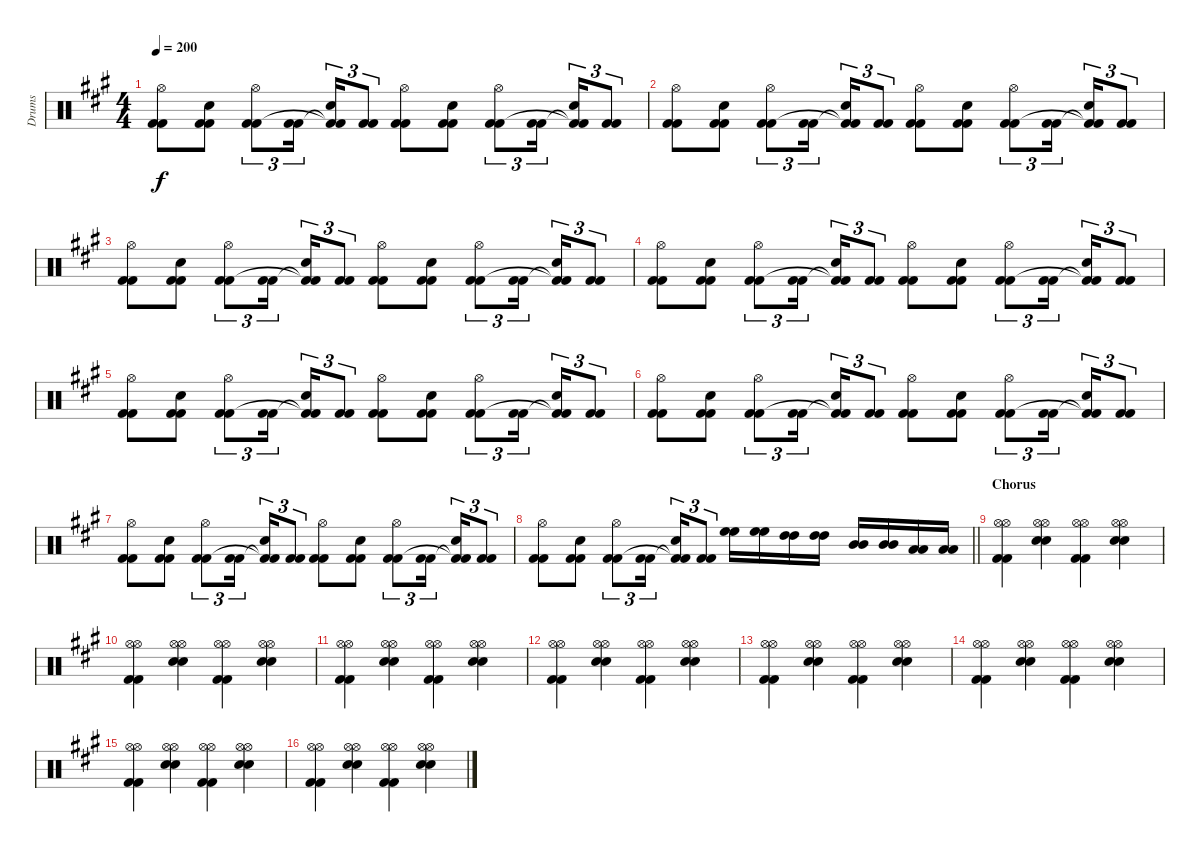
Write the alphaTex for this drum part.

\track ("Drums" "Drums") {instrument percussion}
\staff {score}
\articulation defaults
\ts (4 4)
\tempo 200
\clef neutral
\ks f#minor
("Hi-Hat (open)" "Kick (hit) 2" "Kick (hit) 2").8{dy f} ("Snare (hit) 2" "Kick (hit) 2" "Kick (hit) 2").8 ("Hi-Hat (open)" "Kick (hit) 2" "Kick (hit) 2").8{tu (3 2)} ("Kick (hit) 2" "Kick (hit) 2").16{tu (3 2) beam splitsecondary} ("Snare (hit) 2" "Kick (hit) 2"{t} "Kick (hit) 2"{t}).16{tu (3 2)} ("Kick (hit) 2" "Kick (hit) 2").8{tu (3 2)} ("Hi-Hat (open)" "Kick (hit) 2" "Kick (hit) 2").8 ("Snare (hit) 2" "Kick (hit) 2" "Kick (hit) 2").8 ("Hi-Hat (open)" "Kick (hit) 2" "Kick (hit) 2").8{tu (3 2)} ("Kick (hit) 2" "Kick (hit) 2").16{tu (3 2) beam splitsecondary} ("Snare (hit) 2" "Kick (hit) 2"{t} "Kick (hit) 2"{t}).16{tu (3 2)} ("Kick (hit) 2" "Kick (hit) 2").8{tu (3 2)} |
("Hi-Hat (open)" "Kick (hit) 2" "Kick (hit) 2").8 ("Snare (hit) 2" "Kick (hit) 2" "Kick (hit) 2").8 ("Hi-Hat (open)" "Kick (hit) 2" "Kick (hit) 2").8{tu (3 2)} ("Kick (hit) 2" "Kick (hit) 2").16{tu (3 2) beam splitsecondary} ("Snare (hit) 2" "Kick (hit) 2"{t} "Kick (hit) 2"{t}).16{tu (3 2)} ("Kick (hit) 2" "Kick (hit) 2").8{tu (3 2)} ("Hi-Hat (open)" "Kick (hit) 2" "Kick (hit) 2").8 ("Snare (hit) 2" "Kick (hit) 2" "Kick (hit) 2").8 ("Hi-Hat (open)" "Kick (hit) 2" "Kick (hit) 2").8{tu (3 2)} ("Kick (hit) 2" "Kick (hit) 2").16{tu (3 2) beam splitsecondary} ("Snare (hit) 2" "Kick (hit) 2"{t} "Kick (hit) 2"{t}).16{tu (3 2)} ("Kick (hit) 2" "Kick (hit) 2").8{tu (3 2)} |
("Hi-Hat (open)" "Kick (hit) 2" "Kick (hit) 2").8 ("Snare (hit) 2" "Kick (hit) 2" "Kick (hit) 2").8 ("Hi-Hat (open)" "Kick (hit) 2" "Kick (hit) 2").8{tu (3 2)} ("Kick (hit) 2" "Kick (hit) 2").16{tu (3 2) beam splitsecondary} ("Snare (hit) 2" "Kick (hit) 2"{t} "Kick (hit) 2"{t}).16{tu (3 2)} ("Kick (hit) 2" "Kick (hit) 2").8{tu (3 2)} ("Hi-Hat (open)" "Kick (hit) 2" "Kick (hit) 2").8 ("Snare (hit) 2" "Kick (hit) 2" "Kick (hit) 2").8 ("Hi-Hat (open)" "Kick (hit) 2" "Kick (hit) 2").8{tu (3 2)} ("Kick (hit) 2" "Kick (hit) 2").16{tu (3 2) beam splitsecondary} ("Snare (hit) 2" "Kick (hit) 2"{t} "Kick (hit) 2"{t}).16{tu (3 2)} ("Kick (hit) 2" "Kick (hit) 2").8{tu (3 2)} |
("Hi-Hat (open)" "Kick (hit) 2" "Kick (hit) 2").8 ("Snare (hit) 2" "Kick (hit) 2" "Kick (hit) 2").8 ("Hi-Hat (open)" "Kick (hit) 2" "Kick (hit) 2").8{tu (3 2)} ("Kick (hit) 2" "Kick (hit) 2").16{tu (3 2) beam splitsecondary} ("Snare (hit) 2" "Kick (hit) 2"{t} "Kick (hit) 2"{t}).16{tu (3 2)} ("Kick (hit) 2" "Kick (hit) 2").8{tu (3 2)} ("Hi-Hat (open)" "Kick (hit) 2" "Kick (hit) 2").8 ("Snare (hit) 2" "Kick (hit) 2" "Kick (hit) 2").8 ("Hi-Hat (open)" "Kick (hit) 2" "Kick (hit) 2").8{tu (3 2)} ("Kick (hit) 2" "Kick (hit) 2").16{tu (3 2) beam splitsecondary} ("Snare (hit) 2" "Kick (hit) 2"{t} "Kick (hit) 2"{t}).16{tu (3 2)} ("Kick (hit) 2" "Kick (hit) 2").8{tu (3 2)} |
("Hi-Hat (open)" "Kick (hit) 2" "Kick (hit) 2").8 ("Snare (hit) 2" "Kick (hit) 2" "Kick (hit) 2").8 ("Hi-Hat (open)" "Kick (hit) 2" "Kick (hit) 2").8{tu (3 2)} ("Kick (hit) 2" "Kick (hit) 2").16{tu (3 2) beam splitsecondary} ("Snare (hit) 2" "Kick (hit) 2"{t} "Kick (hit) 2"{t}).16{tu (3 2)} ("Kick (hit) 2" "Kick (hit) 2").8{tu (3 2)} ("Hi-Hat (open)" "Kick (hit) 2" "Kick (hit) 2").8 ("Snare (hit) 2" "Kick (hit) 2" "Kick (hit) 2").8 ("Hi-Hat (open)" "Kick (hit) 2" "Kick (hit) 2").8{tu (3 2)} ("Kick (hit) 2" "Kick (hit) 2").16{tu (3 2) beam splitsecondary} ("Snare (hit) 2" "Kick (hit) 2"{t} "Kick (hit) 2"{t}).16{tu (3 2)} ("Kick (hit) 2" "Kick (hit) 2").8{tu (3 2)} |
("Hi-Hat (open)" "Kick (hit) 2" "Kick (hit) 2").8 ("Snare (hit) 2" "Kick (hit) 2" "Kick (hit) 2").8 ("Hi-Hat (open)" "Kick (hit) 2" "Kick (hit) 2").8{tu (3 2)} ("Kick (hit) 2" "Kick (hit) 2").16{tu (3 2) beam splitsecondary} ("Snare (hit) 2" "Kick (hit) 2"{t} "Kick (hit) 2"{t}).16{tu (3 2)} ("Kick (hit) 2" "Kick (hit) 2").8{tu (3 2)} ("Hi-Hat (open)" "Kick (hit) 2" "Kick (hit) 2").8 ("Snare (hit) 2" "Kick (hit) 2" "Kick (hit) 2").8 ("Hi-Hat (open)" "Kick (hit) 2" "Kick (hit) 2").8{tu (3 2)} ("Kick (hit) 2" "Kick (hit) 2").16{tu (3 2) beam splitsecondary} ("Snare (hit) 2" "Kick (hit) 2"{t} "Kick (hit) 2"{t}).16{tu (3 2)} ("Kick (hit) 2" "Kick (hit) 2").8{tu (3 2)} |
("Hi-Hat (open)" "Kick (hit) 2" "Kick (hit) 2").8 ("Snare (hit) 2" "Kick (hit) 2" "Kick (hit) 2").8 ("Hi-Hat (open)" "Kick (hit) 2" "Kick (hit) 2").8{tu (3 2)} ("Kick (hit) 2" "Kick (hit) 2").16{tu (3 2) beam splitsecondary} ("Snare (hit) 2" "Kick (hit) 2"{t} "Kick (hit) 2"{t}).16{tu (3 2)} ("Kick (hit) 2" "Kick (hit) 2").8{tu (3 2)} ("Hi-Hat (open)" "Kick (hit) 2" "Kick (hit) 2").8 ("Snare (hit) 2" "Kick (hit) 2" "Kick (hit) 2").8 ("Hi-Hat (open)" "Kick (hit) 2" "Kick (hit) 2").8{tu (3 2)} ("Kick (hit) 2" "Kick (hit) 2").16{tu (3 2) beam splitsecondary} ("Snare (hit) 2" "Kick (hit) 2"{t} "Kick (hit) 2"{t}).16{tu (3 2)} ("Kick (hit) 2" "Kick (hit) 2").8{tu (3 2)} |
\barLineRight lightlight
("Hi-Hat (open)" "Kick (hit) 2" "Kick (hit) 2").8 ("Snare (hit) 2" "Kick (hit) 2" "Kick (hit) 2").8 ("Hi-Hat (open)" "Kick (hit) 2" "Kick (hit) 2").8{tu (3 2)} ("Kick (hit) 2" "Kick (hit) 2").16{tu (3 2) beam splitsecondary} ("Snare (hit) 2" "Kick (hit) 2"{t} "Kick (hit) 2"{t}).16{tu (3 2)} ("Kick (hit) 2" "Kick (hit) 2").8{tu (3 2)} ("High Floor Tom (hit)" "High Floor Tom (hit)").16 ("High Floor Tom (hit)" "High Floor Tom (hit)").16 ("High Tom (hit)" "High Tom (hit)").16 ("High Tom (hit)" "High Tom (hit)").16 ("Mid Tom (hit)" "Mid Tom (hit)").16 ("Mid Tom (hit)" "Mid Tom (hit)").16 ("Low Tom (hit)" "Low Tom (hit)").16 ("Low Tom (hit)" "Low Tom (hit)").16 |
\section ("" "Chorus")
("Hi-Hat (open)" "Hi-Hat (open)" "Kick (hit) 2" "Kick (hit) 2").4 ("Hi-Hat (open)" "Hi-Hat (open)" "Snare (hit) 2" "Snare (hit) 2").4 ("Hi-Hat (open)" "Hi-Hat (open)" "Kick (hit) 2" "Kick (hit) 2").4 ("Hi-Hat (open)" "Hi-Hat (open)" "Snare (hit) 2" "Snare (hit) 2").4 |
("Hi-Hat (open)" "Hi-Hat (open)" "Kick (hit) 2" "Kick (hit) 2").4 ("Hi-Hat (open)" "Hi-Hat (open)" "Snare (hit) 2" "Snare (hit) 2").4 ("Hi-Hat (open)" "Hi-Hat (open)" "Kick (hit) 2" "Kick (hit) 2").4 ("Hi-Hat (open)" "Hi-Hat (open)" "Snare (hit) 2" "Snare (hit) 2").4 |
("Hi-Hat (open)" "Hi-Hat (open)" "Kick (hit) 2" "Kick (hit) 2").4 ("Hi-Hat (open)" "Hi-Hat (open)" "Snare (hit) 2" "Snare (hit) 2").4 ("Hi-Hat (open)" "Hi-Hat (open)" "Kick (hit) 2" "Kick (hit) 2").4 ("Hi-Hat (open)" "Hi-Hat (open)" "Snare (hit) 2" "Snare (hit) 2").4 |
("Hi-Hat (open)" "Hi-Hat (open)" "Kick (hit) 2" "Kick (hit) 2").4 ("Hi-Hat (open)" "Hi-Hat (open)" "Snare (hit) 2" "Snare (hit) 2").4 ("Hi-Hat (open)" "Hi-Hat (open)" "Kick (hit) 2" "Kick (hit) 2").4 ("Hi-Hat (open)" "Hi-Hat (open)" "Snare (hit) 2" "Snare (hit) 2").4 |
("Hi-Hat (open)" "Hi-Hat (open)" "Kick (hit) 2" "Kick (hit) 2").4 ("Hi-Hat (open)" "Hi-Hat (open)" "Snare (hit) 2" "Snare (hit) 2").4 ("Hi-Hat (open)" "Hi-Hat (open)" "Kick (hit) 2" "Kick (hit) 2").4 ("Hi-Hat (open)" "Hi-Hat (open)" "Snare (hit) 2" "Snare (hit) 2").4 |
("Hi-Hat (open)" "Hi-Hat (open)" "Kick (hit) 2" "Kick (hit) 2").4 ("Hi-Hat (open)" "Hi-Hat (open)" "Snare (hit) 2" "Snare (hit) 2").4 ("Hi-Hat (open)" "Hi-Hat (open)" "Kick (hit) 2" "Kick (hit) 2").4 ("Hi-Hat (open)" "Hi-Hat (open)" "Snare (hit) 2" "Snare (hit) 2").4 |
("Hi-Hat (open)" "Hi-Hat (open)" "Kick (hit) 2" "Kick (hit) 2").4 ("Hi-Hat (open)" "Hi-Hat (open)" "Snare (hit) 2" "Snare (hit) 2").4 ("Hi-Hat (open)" "Hi-Hat (open)" "Kick (hit) 2" "Kick (hit) 2").4 ("Hi-Hat (open)" "Hi-Hat (open)" "Snare (hit) 2" "Snare (hit) 2").4 |
("Hi-Hat (open)" "Hi-Hat (open)" "Kick (hit) 2" "Kick (hit) 2").4 ("Hi-Hat (open)" "Hi-Hat (open)" "Snare (hit) 2" "Snare (hit) 2").4 ("Hi-Hat (open)" "Hi-Hat (open)" "Kick (hit) 2" "Kick (hit) 2").4 ("Hi-Hat (open)" "Hi-Hat (open)" "Snare (hit) 2" "Snare (hit) 2").4
